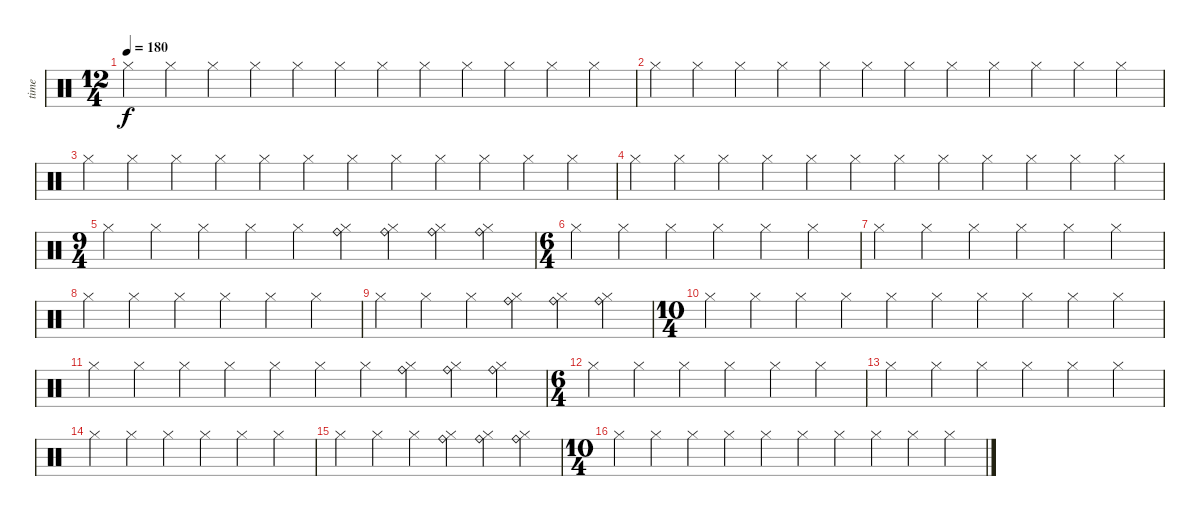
\track ("time" "time") {instrument percussion}
\staff {score}
\articulation defaults
\ts (12 4)
\tempo 180
\clef neutral
\ks c "Hi-Hat (closed)".4{dy f} "Hi-Hat (closed)".4 "Hi-Hat (closed)".4 "Hi-Hat (closed)".4 "Hi-Hat (closed)".4 "Hi-Hat (closed)".4 "Hi-Hat (closed)".4 "Hi-Hat (closed)".4 "Hi-Hat (closed)".4 "Hi-Hat (closed)".4 "Hi-Hat (closed)".4 "Hi-Hat (closed)".4
|
"Hi-Hat (closed)".4 "Hi-Hat (closed)".4 "Hi-Hat (closed)".4 "Hi-Hat (closed)".4 "Hi-Hat (closed)".4 "Hi-Hat (closed)".4 "Hi-Hat (closed)".4 "Hi-Hat (closed)".4 "Hi-Hat (closed)".4 "Hi-Hat (closed)".4 "Hi-Hat (closed)".4 "Hi-Hat (closed)".4 |
"Hi-Hat (closed)".4 "Hi-Hat (closed)".4 "Hi-Hat (closed)".4 "Hi-Hat (closed)".4 "Hi-Hat (closed)".4 "Hi-Hat (closed)".4 "Hi-Hat (closed)".4 "Hi-Hat (closed)".4 "Hi-Hat (closed)".4 "Hi-Hat (closed)".4 "Hi-Hat (closed)".4 "Hi-Hat (closed)".4 |
"Hi-Hat (closed)".4 "Hi-Hat (closed)".4 "Hi-Hat (closed)".4 "Hi-Hat (closed)".4 "Hi-Hat (closed)".4 "Hi-Hat (closed)".4 "Hi-Hat (closed)".4 "Hi-Hat (closed)".4 "Hi-Hat (closed)".4 "Hi-Hat (closed)".4 "Hi-Hat (closed)".4 "Hi-Hat (closed)".4 |
\ts (9 4)
"Hi-Hat (closed)".4 "Hi-Hat (closed)".4 "Hi-Hat (closed)".4 "Hi-Hat (closed)".4 "Hi-Hat (closed)".4 ("Hi-Hat (closed)" "Ride (bell)").4 ("Hi-Hat (closed)" "Ride (bell)").4 ("Hi-Hat (closed)" "Ride (bell)").4 ("Hi-Hat (closed)" "Ride (bell)").4 |
\ts (6 4)
"Hi-Hat (closed)".4 "Hi-Hat (closed)".4 "Hi-Hat (closed)".4 "Hi-Hat (closed)".4 "Hi-Hat (closed)".4 "Hi-Hat (closed)".4 |
"Hi-Hat (closed)".4 "Hi-Hat (closed)".4 "Hi-Hat (closed)".4 "Hi-Hat (closed)".4 "Hi-Hat (closed)".4 "Hi-Hat (closed)".4 |
"Hi-Hat (closed)".4 "Hi-Hat (closed)".4 "Hi-Hat (closed)".4 "Hi-Hat (closed)".4 "Hi-Hat (closed)".4 "Hi-Hat (closed)".4 |
"Hi-Hat (closed)".4 "Hi-Hat (closed)".4 "Hi-Hat (closed)".4 ("Hi-Hat (closed)" "Ride (bell)").4 ("Hi-Hat (closed)" "Ride (bell)").4 ("Hi-Hat (closed)" "Ride (bell)").4 |
\ts (10 4)
"Hi-Hat (closed)".4 "Hi-Hat (closed)".4 "Hi-Hat (closed)".4 "Hi-Hat (closed)".4 "Hi-Hat (closed)".4 "Hi-Hat (closed)".4 "Hi-Hat (closed)".4 "Hi-Hat (closed)".4 "Hi-Hat (closed)".4 "Hi-Hat (closed)".4 |
"Hi-Hat (closed)".4 "Hi-Hat (closed)".4 "Hi-Hat (closed)".4 "Hi-Hat (closed)".4 "Hi-Hat (closed)".4 "Hi-Hat (closed)".4 "Hi-Hat (closed)".4 ("Hi-Hat (closed)" "Ride (bell)").4 ("Hi-Hat (closed)" "Ride (bell)").4 ("Hi-Hat (closed)" "Ride (bell)").4 |
\ts (6 4)
"Hi-Hat (closed)".4 "Hi-Hat (closed)".4 "Hi-Hat (closed)".4 "Hi-Hat (closed)".4 "Hi-Hat (closed)".4 "Hi-Hat (closed)".4 |
"Hi-Hat (closed)".4 "Hi-Hat (closed)".4 "Hi-Hat (closed)".4 "Hi-Hat (closed)".4 "Hi-Hat (closed)".4 "Hi-Hat (closed)".4 |
"Hi-Hat (closed)".4 "Hi-Hat (closed)".4 "Hi-Hat (closed)".4 "Hi-Hat (closed)".4 "Hi-Hat (closed)".4 "Hi-Hat (closed)".4 |
"Hi-Hat (closed)".4 "Hi-Hat (closed)".4 "Hi-Hat (closed)".4 ("Hi-Hat (closed)" "Ride (bell)").4 ("Hi-Hat (closed)" "Ride (bell)").4 ("Hi-Hat (closed)" "Ride (bell)").4 |
\ts (10 4)
"Hi-Hat (closed)".4 "Hi-Hat (closed)".4 "Hi-Hat (closed)".4 "Hi-Hat (closed)".4 "Hi-Hat (closed)".4 "Hi-Hat (closed)".4 "Hi-Hat (closed)".4 "Hi-Hat (closed)".4 "Hi-Hat (closed)".4 "Hi-Hat (closed)".4
